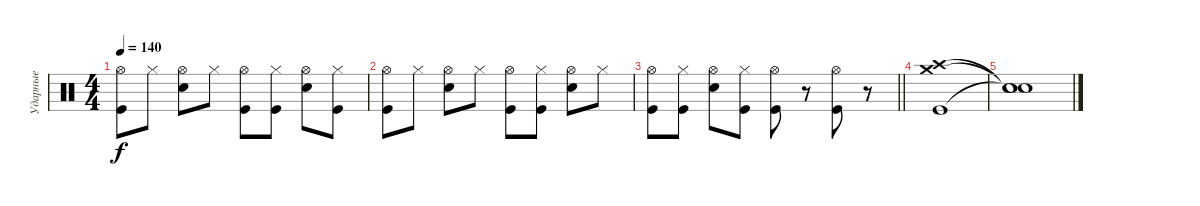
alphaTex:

\track ("Ударные" "Ударные") {instrument percussion}
\staff {score}
\articulation defaults
\ts (4 4)
\tempo 140
\clef neutral
\ks c
("Hi-Hat (open)" "Kick (hit)").8{dy f} "Hi-Hat (closed)".8 ("Hi-Hat (open)" "Snare (hit) 2").8 "Hi-Hat (closed)".8 ("Hi-Hat (open)" "Kick (hit)").8 ("Hi-Hat (closed)" "Kick (hit)").8 ("Hi-Hat (open)" "Snare (hit) 2").8 ("Hi-Hat (closed)" "Kick (hit)").8 |
("Hi-Hat (open)" "Kick (hit)").8 "Hi-Hat (closed)".8 ("Hi-Hat (open)" "Snare (hit) 2").8 "Hi-Hat (closed)".8 ("Hi-Hat (open)" "Kick (hit)").8 ("Hi-Hat (closed)" "Kick (hit)").8 ("Hi-Hat (open)" "Snare (hit) 2").8 "Hi-Hat (closed)".8 |
\barLineRight lightlight
("Hi-Hat (open)" "Kick (hit)").8 ("Hi-Hat (closed)" "Kick (hit)").8 ("Hi-Hat (open)" "Snare (hit) 2").8 ("Hi-Hat (closed)" "Kick (hit)").8 ("Hi-Hat (open)" "Kick (hit)").8 r.8 ("Hi-Hat (open)" "Kick (hit)").8 r.8 |
("Crash high (hit)" "Crash medium (hit)" "Kick (hit)").1 |
("Snare (hit)"{t} "Snare (hit)"{t} "Snare (hit)"{t}).1
